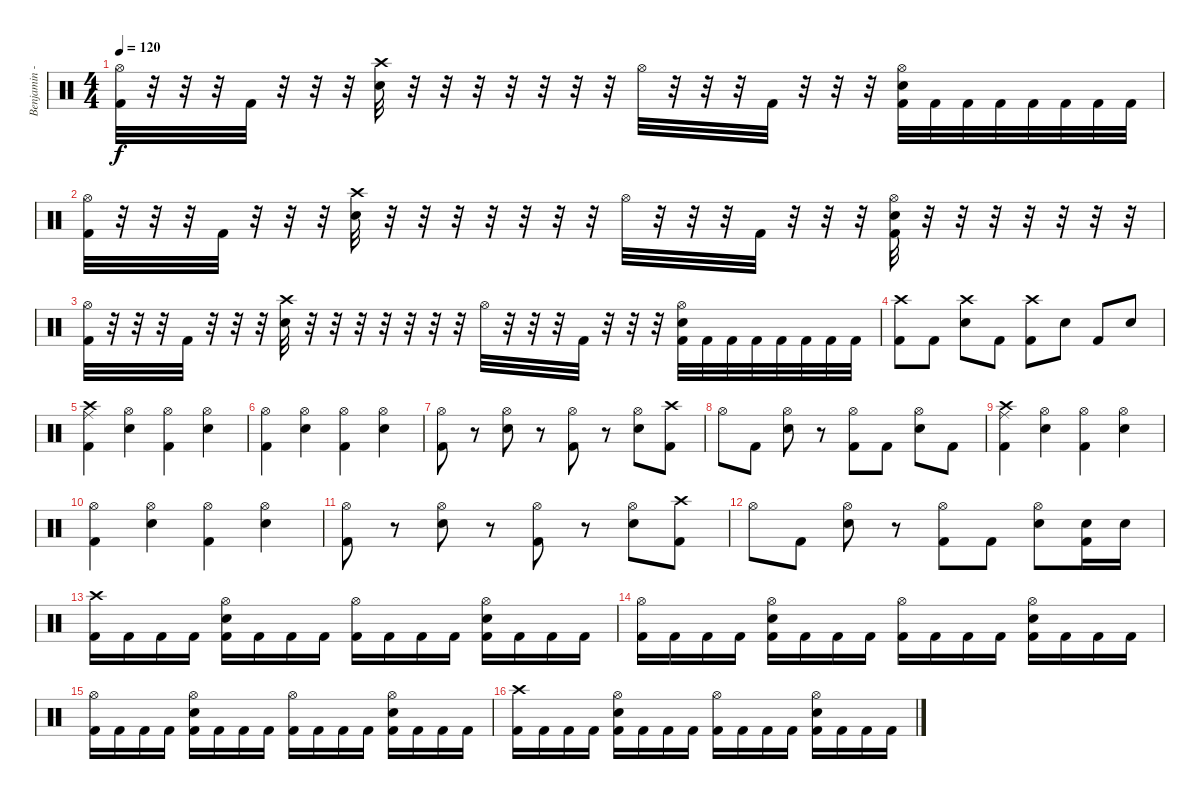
\track ("Benjamin - Drums" "Benjamin -") {instrument percussion}
\staff {score}
\articulation defaults
\ts (4 4)
\tempo 120
\clef neutral
\ks c
("Hi-Hat (open)" "Kick (hit) 2").32{dy f} r.32 r.32 r.32 "Kick (hit) 2".32 r.32 r.32 r.32 ("Crash high (hit)" "Snare (hit) 2").32 r.32 r.32 r.32 r.32 r.32 r.32 r.32 "Hi-Hat (open)".32 r.32 r.32 r.32 "Kick (hit) 2".32 r.32 r.32 r.32 ("Hi-Hat (open)" "Snare (hit) 2" "Kick (hit) 2").32 "Kick (hit) 2".32 "Kick (hit) 2".32 "Kick (hit) 2".32 "Kick (hit) 2".32 "Kick (hit) 2".32 "Kick (hit) 2".32 "Kick (hit) 2".32 |
("Hi-Hat (open)" "Kick (hit) 2").32 r.32 r.32 r.32 "Kick (hit) 2".32 r.32 r.32 r.32 ("Crash high (hit)" "Snare (hit) 2").32 r.32 r.32 r.32 r.32 r.32 r.32 r.32 "Hi-Hat (open)".32 r.32 r.32 r.32 "Kick (hit) 2".32 r.32 r.32 r.32 ("Hi-Hat (open)" "Snare (hit) 2" "Kick (hit) 2").32 r.32 r.32 r.32 r.32 r.32 r.32 r.32 |
("Hi-Hat (open)" "Kick (hit) 2").32 r.32 r.32 r.32 "Kick (hit) 2".32 r.32 r.32 r.32 ("Crash high (hit)" "Snare (hit) 2").32 r.32 r.32 r.32 r.32 r.32 r.32 r.32 "Hi-Hat (open)".32 r.32 r.32 r.32 "Kick (hit) 2".32 r.32 r.32 r.32 ("Hi-Hat (open)" "Snare (hit) 2" "Kick (hit) 2").32 "Kick (hit) 2".32 "Kick (hit) 2".32 "Kick (hit) 2".32 "Kick (hit) 2".32 "Kick (hit) 2".32 "Kick (hit) 2".32 "Kick (hit) 2".32 |
("Crash high (hit)" "Kick (hit) 2").8 "Kick (hit) 2".8 ("Crash high (hit)" "Snare (hit) 2").8 "Kick (hit) 2".8 ("Crash high (hit)" "Kick (hit) 2").8 "Snare (hit) 2".8 "Kick (hit) 2".8 "Snare (hit) 2".8 |
("Crash high (hit)" "Ride (middle)" "Kick (hit) 2").4 ("Hi-Hat (open)" "Snare (hit) 2").4 ("Hi-Hat (open)" "Kick (hit) 2").4 ("Hi-Hat (open)" "Snare (hit) 2").4 |
("Hi-Hat (open)" "Kick (hit) 2").4 ("Hi-Hat (open)" "Snare (hit) 2").4 ("Hi-Hat (open)" "Kick (hit) 2").4 ("Hi-Hat (open)" "Snare (hit) 2").4 |
("Hi-Hat (open)" "Kick (hit) 2").8 r.8 ("Hi-Hat (open)" "Snare (hit) 2").8 r.8 ("Hi-Hat (open)" "Kick (hit) 2").8 r.8 ("Hi-Hat (open)" "Snare (hit) 2").8 ("Crash high (hit)" "Kick (hit) 2").8 |
"Hi-Hat (open)".8 "Kick (hit) 2".8 ("Hi-Hat (open)" "Snare (hit) 2").8 r.8 ("Hi-Hat (open)" "Kick (hit) 2").8 "Kick (hit) 2".8 ("Hi-Hat (open)" "Snare (hit) 2").8 "Kick (hit) 2".8 |
("Crash high (hit)" "Ride (middle)" "Kick (hit) 2").4 ("Hi-Hat (open)" "Snare (hit) 2").4 ("Hi-Hat (open)" "Kick (hit) 2").4 ("Hi-Hat (open)" "Snare (hit) 2").4 |
("Hi-Hat (open)" "Kick (hit) 2").4 ("Hi-Hat (open)" "Snare (hit) 2").4 ("Hi-Hat (open)" "Kick (hit) 2").4 ("Hi-Hat (open)" "Snare (hit) 2").4 |
("Hi-Hat (open)" "Kick (hit) 2").8 r.8 ("Hi-Hat (open)" "Snare (hit) 2").8 r.8 ("Hi-Hat (open)" "Kick (hit) 2").8 r.8 ("Hi-Hat (open)" "Snare (hit) 2").8 ("Crash high (hit)" "Kick (hit) 2").8 |
"Hi-Hat (open)".8 "Kick (hit) 2".8 ("Hi-Hat (open)" "Snare (hit) 2").8 r.8 ("Hi-Hat (open)" "Kick (hit) 2").8 "Kick (hit) 2".8 ("Hi-Hat (open)" "Snare (hit) 2").8 ("Snare (hit) 2" "Kick (hit) 2").16 "Snare (hit) 2".16 |
("Crash high (hit)" "Kick (hit) 2").16 "Kick (hit) 2".16 "Kick (hit) 2".16 "Kick (hit) 2".16 ("Hi-Hat (open)" "Snare (hit) 2" "Kick (hit) 2").16 "Kick (hit) 2".16 "Kick (hit) 2".16 "Kick (hit) 2".16 ("Hi-Hat (open)" "Kick (hit) 2").16 "Kick (hit) 2".16 "Kick (hit) 2".16 "Kick (hit) 2".16 ("Hi-Hat (open)" "Snare (hit) 2" "Kick (hit) 2").16 "Kick (hit) 2".16 "Kick (hit) 2".16 "Kick (hit) 2".16 |
("Hi-Hat (open)" "Kick (hit) 2").16 "Kick (hit) 2".16 "Kick (hit) 2".16 "Kick (hit) 2".16 ("Hi-Hat (open)" "Snare (hit) 2" "Kick (hit) 2").16 "Kick (hit) 2".16 "Kick (hit) 2".16 "Kick (hit) 2".16 ("Hi-Hat (open)" "Kick (hit) 2").16 "Kick (hit) 2".16 "Kick (hit) 2".16 "Kick (hit) 2".16 ("Hi-Hat (open)" "Snare (hit) 2" "Kick (hit) 2").16 "Kick (hit) 2".16 "Kick (hit) 2".16 "Kick (hit) 2".16 |
("Hi-Hat (open)" "Kick (hit) 2").16 "Kick (hit) 2".16 "Kick (hit) 2".16 "Kick (hit) 2".16 ("Hi-Hat (open)" "Snare (hit) 2" "Kick (hit) 2").16 "Kick (hit) 2".16 "Kick (hit) 2".16 "Kick (hit) 2".16 ("Hi-Hat (open)" "Kick (hit) 2").16 "Kick (hit) 2".16 "Kick (hit) 2".16 "Kick (hit) 2".16 ("Hi-Hat (open)" "Snare (hit) 2" "Kick (hit) 2").16 "Kick (hit) 2".16 "Kick (hit) 2".16 "Kick (hit) 2".16 |
("Crash high (hit)" "Kick (hit) 2").16 "Kick (hit) 2".16 "Kick (hit) 2".16 "Kick (hit) 2".16 ("Hi-Hat (open)" "Snare (hit) 2" "Kick (hit) 2").16 "Kick (hit) 2".16 "Kick (hit) 2".16 "Kick (hit) 2".16 ("Hi-Hat (open)" "Kick (hit) 2").16 "Kick (hit) 2".16 "Kick (hit) 2".16 "Kick (hit) 2".16 ("Hi-Hat (open)" "Snare (hit) 2" "Kick (hit) 2").16 "Kick (hit) 2".16 "Kick (hit) 2".16 "Kick (hit) 2".16
